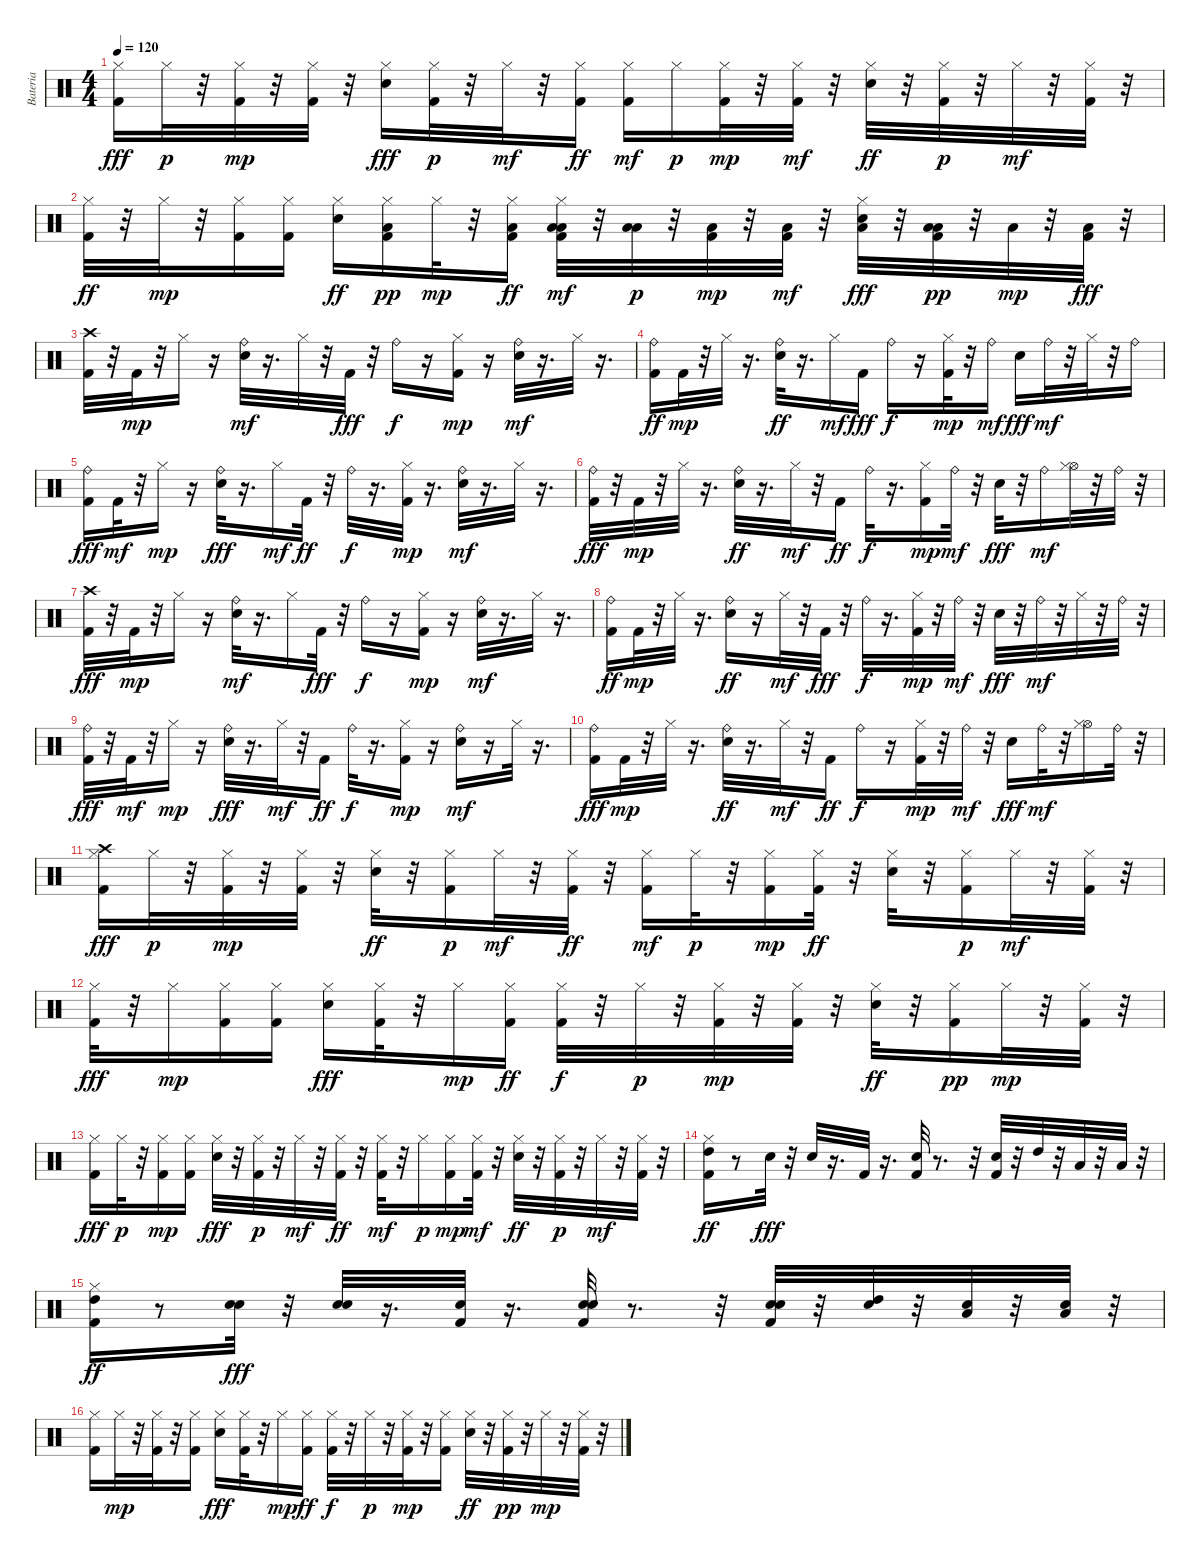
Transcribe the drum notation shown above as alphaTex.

\track ("Bateria" "Bateria") {instrument percussion}
\staff {score}
\articulation defaults
\ts (4 4)
\tempo 120
\clef neutral
\ks c
("Hi-Hat (closed)" "Kick (hit) 2").16{dy fff} "Hi-Hat (closed)".32{dy p} r.32 ("Kick (hit) 2" "Hi-Hat (closed)").32{dy mp} r.32 ("Kick (hit) 2" "Hi-Hat (closed)").32 r.32 ("Hi-Hat (closed)" "Snare (hit) 2").16{dy fff} ("Kick (hit) 2" "Hi-Hat (closed)").32{dy p} r.32 "Hi-Hat (closed)".32{dy mf} r.32 ("Hi-Hat (closed)" "Kick (hit) 2").16{dy ff} ("Kick (hit) 2" "Hi-Hat (closed)").16{dy mf} "Hi-Hat (closed)".16{dy p} ("Kick (hit) 2" "Hi-Hat (closed)").32{dy mp} r.32 ("Hi-Hat (closed)" "Kick (hit) 2").32{dy mf} r.32 ("Hi-Hat (closed)" "Snare (hit) 2").32{dy ff} r.32 ("Kick (hit) 2" "Hi-Hat (closed)").32{dy p} r.32 "Hi-Hat (closed)".32{dy mf} r.32 ("Kick (hit) 2" "Hi-Hat (closed)").32 r.32 |
("Kick (hit) 2" "Hi-Hat (closed)").32{dy ff} r.32 "Hi-Hat (closed)".32{dy mp} r.32 ("Kick (hit) 2" "Hi-Hat (closed)").16 ("Kick (hit) 2" "Hi-Hat (closed)").16 ("Hi-Hat (closed)" "Snare (hit) 2").16{dy ff} ("Low Tom (hit)" "Kick (hit) 2" "Hi-Hat (closed)").16{dy pp} "Hi-Hat (closed)".32{dy mp} r.32 ("Low Tom (hit)" "Kick (hit) 2" "Hi-Hat (closed)").16{dy ff} ("Kick (hit) 2" "Low Tom (hit)" "Low Tom (hit)" "Hi-Hat (closed)").32{dy mf} r.32 ("Low Tom (hit)" "Low Tom (hit)").32{dy p} r.32 ("Low Floor Tom (hit)" "Kick (hit) 2").32{dy mp} r.32 ("Low Floor Tom (hit)" "Kick (hit) 2").32{dy mf} r.32 ("Hi-Hat (closed)" "Low Floor Tom (hit)" "Snare (hit) 2").32{dy fff} r.32 ("Kick (hit) 2" "Low Floor Tom (hit)" "Low Floor Tom (hit)").32{dy pp} r.32 "Low Floor Tom (hit)".32{dy mp} r.32 ("Low Floor Tom (hit)" "Kick (hit) 2").32{dy fff} r.32 |
("Kick (hit) 2" "Crash high (hit)").32 r.32 "Kick (hit) 2".32{dy mp} r.32 "Hi-Hat (closed)".16 r.16 ("Snare (hit) 2" "Ride (bell)").32{dy mf} r.16{d} "Hi-Hat (closed)".32 r.32 "Kick (hit) 2".32{dy fff} r.32 "Ride (bell)".16{dy f} r.16 ("Kick (hit) 2" "Hi-Hat (closed)").16{dy mp} r.16 ("Snare (hit) 2" "Ride (bell)").32{dy mf} r.16{d} "Hi-Hat (closed)".32 r.16{d} |
("Kick (hit) 2" "Ride (bell)").16{dy ff} "Kick (hit) 2".32{dy mp} r.32 "Hi-Hat (closed)".32 r.16{d} ("Ride (bell)" "Snare (hit) 2").32{dy ff} r.16{d} "Hi-Hat (closed)".16{dy mf} "Kick (hit) 2".16{dy fff} "Ride (bell)".16{dy f} r.16 ("Kick (hit) 2" "Hi-Hat (closed)").32{dy mp} r.32 "Ride (bell)".16{dy mf} "Snare (hit) 2".16{dy fff} "Ride (bell)".32{dy mf} r.32 "Hi-Hat (closed)".32 r.32 "Ride (bell)".16 |
("Kick (hit) 2" "Ride (bell)").16{dy fff} "Kick (hit) 2".32{dy mf} r.32 "Hi-Hat (closed)".16{dy mp} r.16 ("Ride (bell)" "Snare (hit) 2").32{dy fff} r.16{d} "Hi-Hat (closed)".16{dy mf} "Kick (hit) 2".32{dy ff} r.32 "Ride (bell)".32{dy f} r.16{d} ("Kick (hit) 2" "Hi-Hat (closed)").32{dy mp} r.16{d} ("Snare (hit) 2" "Ride (bell)").32{dy mf} r.16{d} "Hi-Hat (closed)".32 r.16{d} |
("Kick (hit) 2" "Ride (bell)").32{dy fff} r.32 "Kick (hit) 2".32{dy mp} r.32 "Hi-Hat (closed)".32 r.16{d} ("Ride (bell)" "Snare (hit) 2").32{dy ff} r.16{d} "Hi-Hat (closed)".32{dy mf} r.32 "Kick (hit) 2".16{dy ff} "Ride (bell)".32{dy f} r.16{d} ("Kick (hit) 2" "Hi-Hat (closed)").16{dy mp} "Ride (bell)".32{dy mf} r.32 "Snare (hit) 2".32{dy fff} r.32 "Ride (bell)".16{dy mf} ("Hi-Hat (open)" "Hi-Hat (closed)").32 r.32 "Ride (bell)".32 r.32 |
("Kick (hit) 2" "Crash high (hit)").32{dy fff} r.32 "Kick (hit) 2".32{dy mp} r.32 "Hi-Hat (closed)".16 r.16 ("Snare (hit) 2" "Ride (bell)").32{dy mf} r.16{d} "Hi-Hat (closed)".16 "Kick (hit) 2".32{dy fff} r.32 "Ride (bell)".16{dy f} r.16 ("Kick (hit) 2" "Hi-Hat (closed)").16{dy mp} r.16 ("Snare (hit) 2" "Ride (bell)").32{dy mf} r.16{d} "Hi-Hat (closed)".32 r.16{d} |
("Kick (hit) 2" "Ride (bell)").16{dy ff} "Kick (hit) 2".32{dy mp} r.32 "Hi-Hat (closed)".32 r.16{d} ("Ride (bell)" "Snare (hit) 2").16{dy ff} r.16 "Hi-Hat (closed)".32{dy mf} r.32 "Kick (hit) 2".32{dy fff} r.32 "Ride (bell)".32{dy f} r.16{d} ("Kick (hit) 2" "Hi-Hat (closed)").32{dy mp} r.32 "Ride (bell)".32{dy mf} r.32 "Snare (hit) 2".32{dy fff} r.32 "Ride (bell)".32{dy mf} r.32 "Hi-Hat (closed)".32 r.32 "Ride (bell)".32 r.32 |
("Kick (hit) 2" "Ride (bell)").32{dy fff} r.32 "Kick (hit) 2".32{dy mf} r.32 "Hi-Hat (closed)".16{dy mp} r.16 ("Ride (bell)" "Snare (hit) 2").32{dy fff} r.16{d} "Hi-Hat (closed)".32{dy mf} r.32 "Kick (hit) 2".16{dy ff} "Ride (bell)".32{dy f} r.16{d} ("Kick (hit) 2" "Hi-Hat (closed)").16{dy mp} r.16 ("Snare (hit) 2" "Ride (bell)").16{dy mf} r.16 "Hi-Hat (closed)".32 r.16{d} |
("Kick (hit) 2" "Ride (bell)").16{dy fff} "Kick (hit) 2".32{dy mp} r.32 "Hi-Hat (closed)".32 r.16{d} ("Ride (bell)" "Snare (hit) 2").32{dy ff} r.16{d} "Hi-Hat (closed)".32{dy mf} r.32 "Kick (hit) 2".16{dy ff} "Ride (bell)".16{dy f} r.16 ("Kick (hit) 2" "Hi-Hat (closed)").32{dy mp} r.32 "Ride (bell)".32{dy mf} r.32 "Snare (hit) 2".16{dy fff} "Ride (bell)".32{dy mf} r.32 ("Hi-Hat (open)" "Hi-Hat (closed)").16 "Ride (bell)".32 r.32 |
("Kick (hit) 2" "Hi-Hat (closed)" "Crash high (hit)").16{dy fff} "Hi-Hat (closed)".32{dy p} r.32 ("Kick (hit) 2" "Hi-Hat (closed)").32{dy mp} r.32 ("Kick (hit) 2" "Hi-Hat (closed)").32 r.32 ("Hi-Hat (closed)" "Snare (hit) 2").32{dy ff} r.32 ("Kick (hit) 2" "Hi-Hat (closed)").16{dy p} "Hi-Hat (closed)".32{dy mf} r.32 ("Kick (hit) 2" "Hi-Hat (closed)").32{dy ff} r.32 ("Kick (hit) 2" "Hi-Hat (closed)").16{dy mf} "Hi-Hat (closed)".32{dy p} r.32 ("Kick (hit) 2" "Hi-Hat (closed)").16{dy mp} ("Kick (hit) 2" "Hi-Hat (closed)").32{dy ff} r.32 ("Hi-Hat (closed)" "Snare (hit) 2").32 r.32 ("Kick (hit) 2" "Hi-Hat (closed)").16{dy p} "Hi-Hat (closed)".32{dy mf} r.32 ("Kick (hit) 2" "Hi-Hat (closed)").32 r.32 |
("Hi-Hat (closed)" "Kick (hit) 2").32{dy fff} r.32 "Hi-Hat (closed)".16{dy mp} ("Kick (hit) 2" "Hi-Hat (closed)").16 ("Kick (hit) 2" "Hi-Hat (closed)").16 ("Hi-Hat (closed)" "Snare (hit) 2").16{dy fff} ("Hi-Hat (closed)" "Kick (hit) 2").32 r.32 "Hi-Hat (closed)".16{dy mp} ("Kick (hit) 2" "Hi-Hat (closed)").16{dy ff} ("Hi-Hat (closed)" "Kick (hit) 2").32{dy f} r.32 "Hi-Hat (closed)".32{dy p} r.32 ("Kick (hit) 2" "Hi-Hat (closed)").32{dy mp} r.32 ("Kick (hit) 2" "Hi-Hat (closed)").32 r.32 ("Hi-Hat (closed)" "Snare (hit) 2").32{dy ff} r.32 ("Kick (hit) 2" "Hi-Hat (closed)").16{dy pp} "Hi-Hat (closed)".32{dy mp} r.32 ("Kick (hit) 2" "Hi-Hat (closed)").32 r.32 |
("Hi-Hat (closed)" "Kick (hit) 2").16{dy fff} "Hi-Hat (closed)".32{dy p} r.32 ("Kick (hit) 2" "Hi-Hat (closed)").16{dy mp} ("Kick (hit) 2" "Hi-Hat (closed)").16 ("Hi-Hat (closed)" "Snare (hit) 2").32{dy fff} r.32 ("Kick (hit) 2" "Hi-Hat (closed)").32{dy p} r.32 "Hi-Hat (closed)".32{dy mf} r.32 ("Hi-Hat (closed)" "Kick (hit) 2").32{dy ff} r.32 ("Kick (hit) 2" "Hi-Hat (closed)").32{dy mf} r.32 "Hi-Hat (closed)".16{dy p} ("Kick (hit) 2" "Hi-Hat (closed)").16{dy mp} ("Hi-Hat (closed)" "Kick (hit) 2").32{dy mf} r.32 ("Hi-Hat (closed)" "Snare (hit) 2").32{dy ff} r.32 ("Kick (hit) 2" "Hi-Hat (closed)").32{dy p} r.32 "Hi-Hat (closed)".32{dy mf} r.32 ("Kick (hit) 2" "Hi-Hat (closed)").32 r.32 |
("High Tom (hit)" "Kick (hit) 2" "Hi-Hat (closed)").16{dy ff} r.8 "Snare (hit) 2".32{dy fff} r.32 "Snare (hit) 2".32 r.16{d} "Kick (hit) 2".32 r.16{d} ("Kick (hit) 2" "Snare (hit) 2").32 r.8{d} r.32 ("Kick (hit) 2" "Snare (hit) 2").32 r.32 "High Tom (hit)".32 r.32 "Low Tom (hit)".32 r.32 "Low Floor Tom (hit)".32 r.32 |
("High Tom (hit)" "Kick (hit) 2" "Hi-Hat (closed)").16{dy ff} r.8 ("Snare (hit) 2" "Electric Snare (hit)").32{dy fff} r.32 ("Snare (hit) 2" "Electric Snare (hit)").32 r.16{d} ("Kick (hit) 2" "Electric Snare (hit)").32 r.16{d} ("Kick (hit) 2" "Snare (hit) 2" "Electric Snare (hit)").32 r.8{d} r.32 ("Kick (hit) 2" "Snare (hit) 2" "Electric Snare (hit)").32 r.32 ("High Tom (hit)" "Electric Snare (hit)").32 r.32 ("Low Tom (hit)" "Electric Snare (hit)").32 r.32 ("Low Floor Tom (hit)" "Electric Snare (hit)").32 r.32 |
("Hi-Hat (closed)" "Kick (hit) 2").16 "Hi-Hat (closed)".32{dy mp} r.32 ("Kick (hit) 2" "Hi-Hat (closed)").32 r.32 ("Kick (hit) 2" "Hi-Hat (closed)").16 ("Hi-Hat (closed)" "Snare (hit) 2").16{dy fff} ("Hi-Hat (closed)" "Kick (hit) 2").32 r.32 "Hi-Hat (closed)".16{dy mp} ("Kick (hit) 2" "Hi-Hat (closed)").16{dy ff} ("Hi-Hat (closed)" "Kick (hit) 2").32{dy f} r.32 "Hi-Hat (closed)".32{dy p} r.32 ("Kick (hit) 2" "Hi-Hat (closed)").32{dy mp} r.32 ("Kick (hit) 2" "Hi-Hat (closed)").16 ("Hi-Hat (closed)" "Snare (hit) 2").32{dy ff} r.32 ("Kick (hit) 2" "Hi-Hat (closed)").32{dy pp} r.32 "Hi-Hat (closed)".32{dy mp} r.32 ("Kick (hit) 2" "Hi-Hat (closed)").32 r.32
